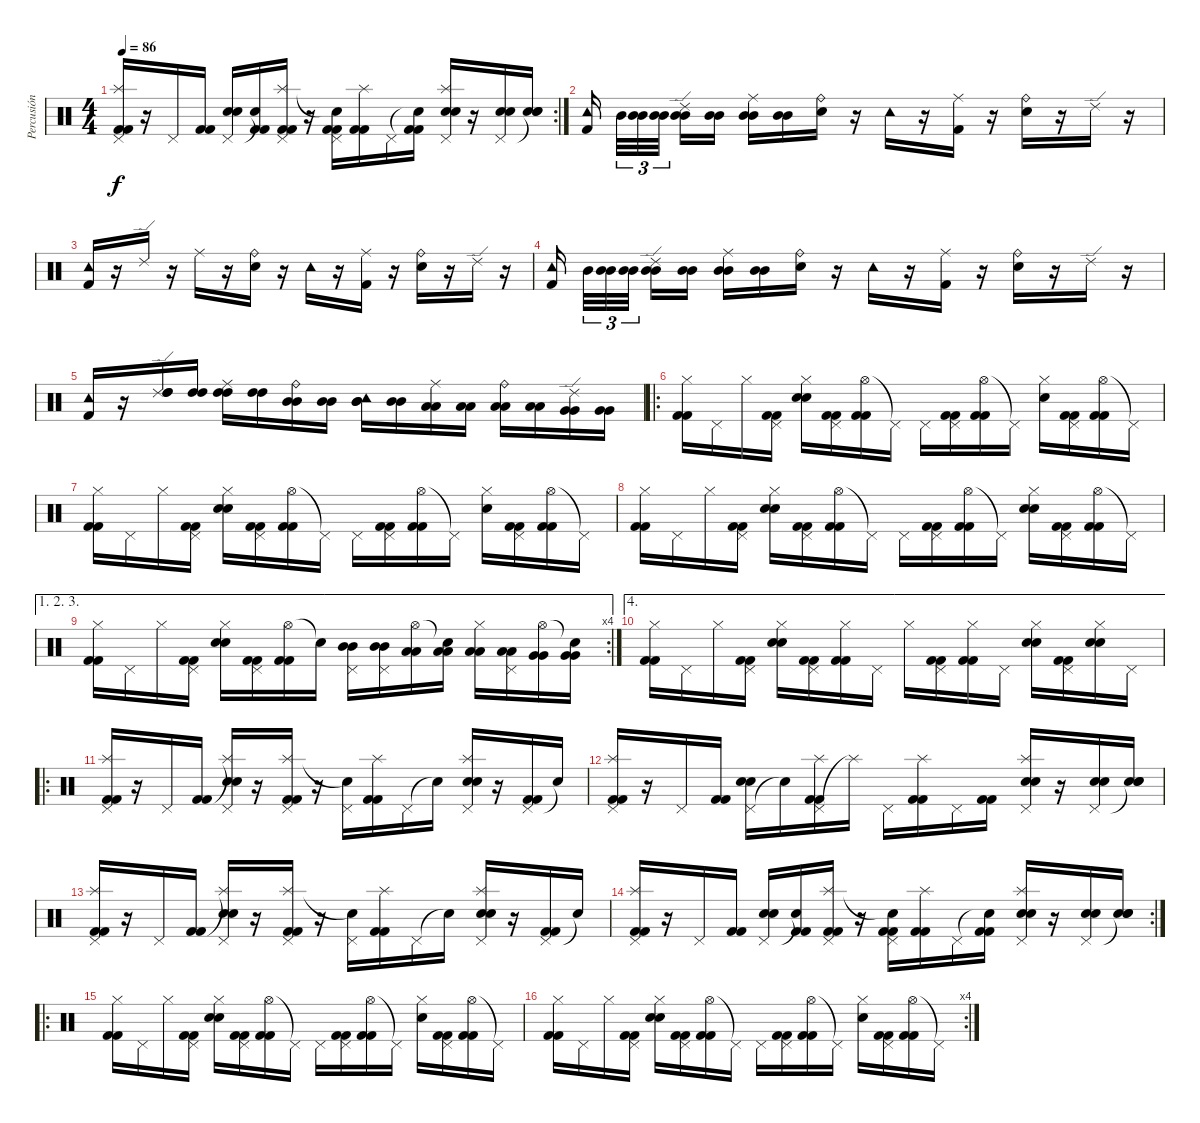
\track ("Percusión" "Percusión") {instrument percussion}
\staff {score}
\articulation defaults
\rc 2
\ts (4 4)
\tempo 86
\clef neutral
\ks c
("Pedal Hi-Hat (hit)" "Splash (hit)" "Kick (hit) 2" "Kick (hit) 2").16{dy f} r.16 "Pedal Hi-Hat (hit)".16 ("Kick (hit) 2" "Kick (hit) 2").16 ("Pedal Hi-Hat (hit)" "Electric Snare (hit)" "Electric Snare (hit)").16 ("Snare (hit)"{t} "Kick (hit) 2" "Kick (hit) 2").16 ("Pedal Hi-Hat (hit)" "Splash (hit)" "Kick (hit) 2" "Kick (hit) 2").16 r.16 ("Pedal Hi-Hat (hit)" "Snare (hit)"{t} "Kick (hit) 2" "Kick (hit) 2").16 ("Splash (hit)" "Kick (hit) 2" "Kick (hit) 2").16 "Pedal Hi-Hat (hit)".16 ("Snare (hit)"{t} "Kick (hit) 2" "Kick (hit) 2").16 ("Pedal Hi-Hat (hit)" "Splash (hit)" "Electric Snare (hit)" "Electric Snare (hit)").16 r.16 ("Pedal Hi-Hat (hit)" "Electric Snare (hit)" "Electric Snare (hit)").16 ("Snare (hit)"{t} "Electric Snare (hit)" "Electric Snare (hit)").16 |
("Tambourine (hit)" "Kick (hit) 2").16 "Mid Tom (hit)".32{tu (3 2)} ("Mid Tom (hit)" "Mid Tom (hit)").32{tu (3 2)} ("Mid Tom (hit)" "Mid Tom (hit)").32{tu (3 2)} ("Ride (edge) 2" "Mid Tom (hit)" "Mid Tom (hit)").16 ("Mid Tom (hit)" "Mid Tom (hit)").16 ("Ride (middle)" "Mid Tom (hit)" "Mid Tom (hit)").16 ("Mid Tom (hit)" "Mid Tom (hit)").16 ("Ride (bell)" "Electric Snare (hit)").16 r.16 "Tambourine (hit)".16 r.16 ("Ride (middle)" "Kick (hit) 2").16 r.16 ("Ride (bell)" "Electric Snare (hit)").16 r.16 "Ride (edge) 2".16 r.16 |
("Tambourine (hit)" "Kick (hit) 2").16 r.16 "Ride (edge) 2".16 r.16 "Ride (middle)".16 r.16 ("Ride (bell)" "Electric Snare (hit)").16 r.16 "Tambourine (hit)".16 r.16 ("Ride (middle)" "Kick (hit) 2").16 r.16 ("Ride (bell)" "Electric Snare (hit)").16 r.16 "Ride (edge) 2".16 r.16 |
("Tambourine (hit)" "Kick (hit) 2").16 "Mid Tom (hit)".32{tu (3 2)} ("Mid Tom (hit)" "Mid Tom (hit)").32{tu (3 2)} ("Mid Tom (hit)" "Mid Tom (hit)").32{tu (3 2)} ("Ride (edge) 2" "Mid Tom (hit)" "Mid Tom (hit)").16 ("Mid Tom (hit)" "Mid Tom (hit)").16 ("Ride (middle)" "Mid Tom (hit)" "Mid Tom (hit)").16 ("Mid Tom (hit)" "Mid Tom (hit)").16 ("Ride (bell)" "Electric Snare (hit)").16 r.16 "Tambourine (hit)".16 r.16 ("Ride (middle)" "Kick (hit) 2").16 r.16 ("Ride (bell)" "Electric Snare (hit)").16 r.16 "Ride (edge) 2".16 r.16 |
("Tambourine (hit)" "Kick (hit) 2").16 r.16 ("Ride (edge) 2" "High Tom (hit)" "High Tom (hit)").16 ("High Tom (hit)" "High Tom (hit)").16 ("Ride (middle)" "High Tom (hit)" "High Tom (hit)").16 ("High Tom (hit)" "High Tom (hit)").16 ("Ride (bell)" "Mid Tom (hit)" "Mid Tom (hit)").16 ("Mid Tom (hit)" "Mid Tom (hit)").16 ("Tambourine (hit)" "Mid Tom (hit)" "Mid Tom (hit)").16 ("Mid Tom (hit)" "Mid Tom (hit)").16 ("Ride (middle)" "Low Tom (hit)" "Low Tom (hit)").16 ("Low Tom (hit)" "Low Tom (hit)").16 ("Ride (bell)" "Low Tom (hit)" "Low Tom (hit)").16 ("Low Tom (hit)" "Low Tom (hit)").16 ("Ride (edge) 2" "Very Low Tom (hit)" "Very Low Tom (hit)").16 ("Very Low Tom (hit)" "Very Low Tom (hit)").16 |
\ro
("Hi-Hat (closed)" "Kick (hit) 2" "Kick (hit) 2").16 "Pedal Hi-Hat (hit)".16 "Hi-Hat (closed)".16 ("Pedal Hi-Hat (hit)" "Kick (hit) 2" "Kick (hit) 2").16 ("Hi-Hat (closed)" "Electric Snare (hit)" "Electric Snare (hit)").16 ("Pedal Hi-Hat (hit)" "Kick (hit) 2" "Kick (hit) 2").16 ("Hi-Hat (open)" "Kick (hit) 2" "Kick (hit) 2").16 "Pedal Hi-Hat (hit)"{t}.16 "Pedal Hi-Hat (hit)".16 ("Pedal Hi-Hat (hit)" "Kick (hit) 2" "Kick (hit) 2").16 ("Hi-Hat (open)" "Kick (hit) 2" "Kick (hit) 2").16 "Pedal Hi-Hat (hit)"{t}.16 ("Hi-Hat (closed)" "Electric Snare (hit)").16 ("Pedal Hi-Hat (hit)" "Kick (hit) 2" "Kick (hit) 2").16 ("Hi-Hat (open)" "Kick (hit) 2" "Kick (hit) 2").16 "Pedal Hi-Hat (hit)"{t}.16 |
("Hi-Hat (closed)" "Kick (hit) 2" "Kick (hit) 2").16 "Pedal Hi-Hat (hit)".16 "Hi-Hat (closed)".16 ("Pedal Hi-Hat (hit)" "Kick (hit) 2" "Kick (hit) 2").16 ("Hi-Hat (closed)" "Electric Snare (hit)" "Electric Snare (hit)").16 ("Pedal Hi-Hat (hit)" "Kick (hit) 2" "Kick (hit) 2").16 ("Hi-Hat (open)" "Kick (hit) 2" "Kick (hit) 2").16 "Pedal Hi-Hat (hit)"{t}.16 "Pedal Hi-Hat (hit)".16 ("Pedal Hi-Hat (hit)" "Kick (hit) 2" "Kick (hit) 2").16 ("Hi-Hat (open)" "Kick (hit) 2" "Kick (hit) 2").16 "Pedal Hi-Hat (hit)"{t}.16 ("Hi-Hat (closed)" "Electric Snare (hit)").16 ("Pedal Hi-Hat (hit)" "Kick (hit) 2" "Kick (hit) 2").16 ("Hi-Hat (open)" "Kick (hit) 2" "Kick (hit) 2").16 "Pedal Hi-Hat (hit)"{t}.16 |
("Hi-Hat (closed)" "Kick (hit) 2" "Kick (hit) 2").16 "Pedal Hi-Hat (hit)".16 "Hi-Hat (closed)".16 ("Pedal Hi-Hat (hit)" "Kick (hit) 2" "Kick (hit) 2").16 ("Hi-Hat (closed)" "Electric Snare (hit)" "Electric Snare (hit)").16 ("Pedal Hi-Hat (hit)" "Kick (hit) 2" "Kick (hit) 2").16 ("Hi-Hat (open)" "Kick (hit) 2" "Kick (hit) 2").16 "Pedal Hi-Hat (hit)"{t}.16 "Pedal Hi-Hat (hit)".16 ("Pedal Hi-Hat (hit)" "Kick (hit) 2" "Kick (hit) 2").16 ("Hi-Hat (open)" "Kick (hit) 2" "Kick (hit) 2").16 "Pedal Hi-Hat (hit)"{t}.16 ("Hi-Hat (closed)" "Electric Snare (hit)" "Electric Snare (hit)").16 ("Pedal Hi-Hat (hit)" "Kick (hit) 2" "Kick (hit) 2").16 ("Hi-Hat (open)" "Kick (hit) 2" "Kick (hit) 2").16 "Pedal Hi-Hat (hit)"{t}.16 |
\ae (1 2 3)
\rc 4
("Hi-Hat (closed)" "Kick (hit) 2" "Kick (hit) 2").16 "Pedal Hi-Hat (hit)".16 "Hi-Hat (closed)".16 ("Pedal Hi-Hat (hit)" "Kick (hit) 2" "Kick (hit) 2").16 ("Hi-Hat (closed)" "Electric Snare (hit)" "Electric Snare (hit)").16 ("Pedal Hi-Hat (hit)" "Kick (hit) 2" "Kick (hit) 2").16 ("Hi-Hat (open)" "Kick (hit) 2" "Kick (hit) 2").16 "Snare (hit)"{t}.16 ("Pedal Hi-Hat (hit)" "Mid Tom (hit)" "Mid Tom (hit)").16 ("Pedal Hi-Hat (hit)" "Mid Tom (hit)" "Mid Tom (hit)").16 ("Hi-Hat (open)" "Low Tom (hit)" "Low Tom (hit)").16 ("Snare (hit)"{t} "Low Tom (hit)" "Low Tom (hit)").16 ("Hi-Hat (closed)" "Low Tom (hit)" "Low Tom (hit)").16 ("Pedal Hi-Hat (hit)" "Low Tom (hit)" "Low Tom (hit)").16 ("Hi-Hat (open)" "Very Low Tom (hit)" "Very Low Tom (hit)").16 ("Snare (hit)"{t} "Very Low Tom (hit)" "Very Low Tom (hit)").16 |
\ae 4
("Hi-Hat (closed)" "Kick (hit) 2" "Kick (hit) 2").16 "Pedal Hi-Hat (hit)".16 "Hi-Hat (closed)".16 ("Pedal Hi-Hat (hit)" "Kick (hit) 2" "Kick (hit) 2").16 ("Hi-Hat (closed)" "Electric Snare (hit)" "Electric Snare (hit)").16 ("Pedal Hi-Hat (hit)" "Kick (hit) 2" "Kick (hit) 2").16 ("Hi-Hat (closed)" "Kick (hit) 2" "Kick (hit) 2").16 "Pedal Hi-Hat (hit)".16 "Hi-Hat (closed)".16 ("Pedal Hi-Hat (hit)" "Kick (hit) 2" "Kick (hit) 2").16 ("Hi-Hat (closed)" "Kick (hit) 2" "Kick (hit) 2").16 "Pedal Hi-Hat (hit)".16 ("Hi-Hat (closed)" "Electric Snare (hit)" "Electric Snare (hit)").16 ("Pedal Hi-Hat (hit)" "Kick (hit) 2" "Kick (hit) 2").16 ("Hi-Hat (closed)" "Electric Snare (hit)" "Electric Snare (hit)").16 "Pedal Hi-Hat (hit)".16 |
\ro
("Pedal Hi-Hat (hit)" "Splash (hit)" "Kick (hit) 2" "Kick (hit) 2").16 r.16 "Pedal Hi-Hat (hit)".16 ("Kick (hit) 2" "Kick (hit) 2").16 ("Pedal Hi-Hat (hit)" "Splash (hit)"{t} "Electric Snare (hit)" "Electric Snare (hit)").16 r.16 ("Pedal Hi-Hat (hit)" "Splash (hit)" "Kick (hit) 2" "Kick (hit) 2").16 r.16 ("Pedal Hi-Hat (hit)" "Snare (hit)"{t}).16 ("Splash (hit)" "Kick (hit) 2" "Kick (hit) 2").16 "Pedal Hi-Hat (hit)".16 "Snare (hit)"{t}.16 ("Pedal Hi-Hat (hit)" "Splash (hit)" "Electric Snare (hit)" "Electric Snare (hit)").16 r.16 ("Pedal Hi-Hat (hit)" "Kick (hit) 2" "Kick (hit) 2").16 "Snare (hit)"{t}.16 |
("Pedal Hi-Hat (hit)" "Splash (hit)" "Kick (hit) 2" "Kick (hit) 2").16 r.16 "Pedal Hi-Hat (hit)".16 ("Kick (hit) 2" "Kick (hit) 2").16 ("Pedal Hi-Hat (hit)" "Electric Snare (hit)" "Electric Snare (hit)").16 "Snare (hit)"{t}.16 ("Pedal Hi-Hat (hit)" "Splash (hit)" "Kick (hit) 2" "Kick (hit) 2").16 "Splash (hit)"{t}.16 "Pedal Hi-Hat (hit)".16 ("Splash (hit)" "Kick (hit) 2" "Kick (hit) 2").16 "Pedal Hi-Hat (hit)".16 ("Kick (hit) 2" "Kick (hit) 2").16 ("Pedal Hi-Hat (hit)" "Splash (hit)" "Electric Snare (hit)" "Electric Snare (hit)").16 r.16 ("Pedal Hi-Hat (hit)" "Electric Snare (hit)" "Electric Snare (hit)").16 ("Snare (hit)"{t} "Electric Snare (hit)" "Electric Snare (hit)").16 |
("Pedal Hi-Hat (hit)" "Splash (hit)" "Kick (hit) 2" "Kick (hit) 2").16 r.16 "Pedal Hi-Hat (hit)".16 ("Kick (hit) 2" "Kick (hit) 2").16 ("Pedal Hi-Hat (hit)" "Splash (hit)"{t} "Electric Snare (hit)" "Electric Snare (hit)").16 r.16 ("Pedal Hi-Hat (hit)" "Splash (hit)" "Kick (hit) 2" "Kick (hit) 2").16 r.16 ("Pedal Hi-Hat (hit)" "Snare (hit)"{t}).16 ("Splash (hit)" "Kick (hit) 2" "Kick (hit) 2").16 "Pedal Hi-Hat (hit)".16 "Snare (hit)"{t}.16 ("Pedal Hi-Hat (hit)" "Splash (hit)" "Electric Snare (hit)" "Electric Snare (hit)").16 r.16 ("Pedal Hi-Hat (hit)" "Kick (hit) 2" "Kick (hit) 2").16 "Snare (hit)"{t}.16 |
\rc 2
("Pedal Hi-Hat (hit)" "Splash (hit)" "Kick (hit) 2" "Kick (hit) 2").16 r.16 "Pedal Hi-Hat (hit)".16 ("Kick (hit) 2" "Kick (hit) 2").16 ("Pedal Hi-Hat (hit)" "Electric Snare (hit)" "Electric Snare (hit)").16 ("Snare (hit)"{t} "Kick (hit) 2" "Kick (hit) 2").16 ("Pedal Hi-Hat (hit)" "Splash (hit)" "Kick (hit) 2" "Kick (hit) 2").16 r.16 ("Pedal Hi-Hat (hit)" "Snare (hit)"{t} "Kick (hit) 2" "Kick (hit) 2").16 ("Splash (hit)" "Kick (hit) 2" "Kick (hit) 2").16 "Pedal Hi-Hat (hit)".16 ("Snare (hit)"{t} "Kick (hit) 2" "Kick (hit) 2").16 ("Pedal Hi-Hat (hit)" "Splash (hit)" "Electric Snare (hit)" "Electric Snare (hit)").16 r.16 ("Pedal Hi-Hat (hit)" "Electric Snare (hit)" "Electric Snare (hit)").16 ("Snare (hit)"{t} "Electric Snare (hit)" "Electric Snare (hit)").16 |
\ro
("Hi-Hat (closed)" "Kick (hit) 2" "Kick (hit) 2").16 "Pedal Hi-Hat (hit)".16 "Hi-Hat (closed)".16 ("Pedal Hi-Hat (hit)" "Kick (hit) 2" "Kick (hit) 2").16 ("Hi-Hat (closed)" "Electric Snare (hit)" "Electric Snare (hit)").16 ("Pedal Hi-Hat (hit)" "Kick (hit) 2" "Kick (hit) 2").16 ("Hi-Hat (open)" "Kick (hit) 2" "Kick (hit) 2").16 "Pedal Hi-Hat (hit)"{t}.16 "Pedal Hi-Hat (hit)".16 ("Pedal Hi-Hat (hit)" "Kick (hit) 2" "Kick (hit) 2").16 ("Hi-Hat (open)" "Kick (hit) 2" "Kick (hit) 2").16 "Pedal Hi-Hat (hit)"{t}.16 ("Hi-Hat (closed)" "Electric Snare (hit)").16 ("Pedal Hi-Hat (hit)" "Kick (hit) 2" "Kick (hit) 2").16 ("Hi-Hat (open)" "Kick (hit) 2" "Kick (hit) 2").16 "Pedal Hi-Hat (hit)"{t}.16 |
\rc 4
("Hi-Hat (closed)" "Kick (hit) 2" "Kick (hit) 2").16 "Pedal Hi-Hat (hit)".16 "Hi-Hat (closed)".16 ("Pedal Hi-Hat (hit)" "Kick (hit) 2" "Kick (hit) 2").16 ("Hi-Hat (closed)" "Electric Snare (hit)" "Electric Snare (hit)").16 ("Pedal Hi-Hat (hit)" "Kick (hit) 2" "Kick (hit) 2").16 ("Hi-Hat (open)" "Kick (hit) 2" "Kick (hit) 2").16 "Pedal Hi-Hat (hit)"{t}.16 "Pedal Hi-Hat (hit)".16 ("Pedal Hi-Hat (hit)" "Kick (hit) 2" "Kick (hit) 2").16 ("Hi-Hat (open)" "Kick (hit) 2" "Kick (hit) 2").16 "Pedal Hi-Hat (hit)"{t}.16 ("Hi-Hat (closed)" "Electric Snare (hit)").16 ("Pedal Hi-Hat (hit)" "Kick (hit) 2" "Kick (hit) 2").16 ("Hi-Hat (open)" "Kick (hit) 2" "Kick (hit) 2").16 "Pedal Hi-Hat (hit)"{t}.16
